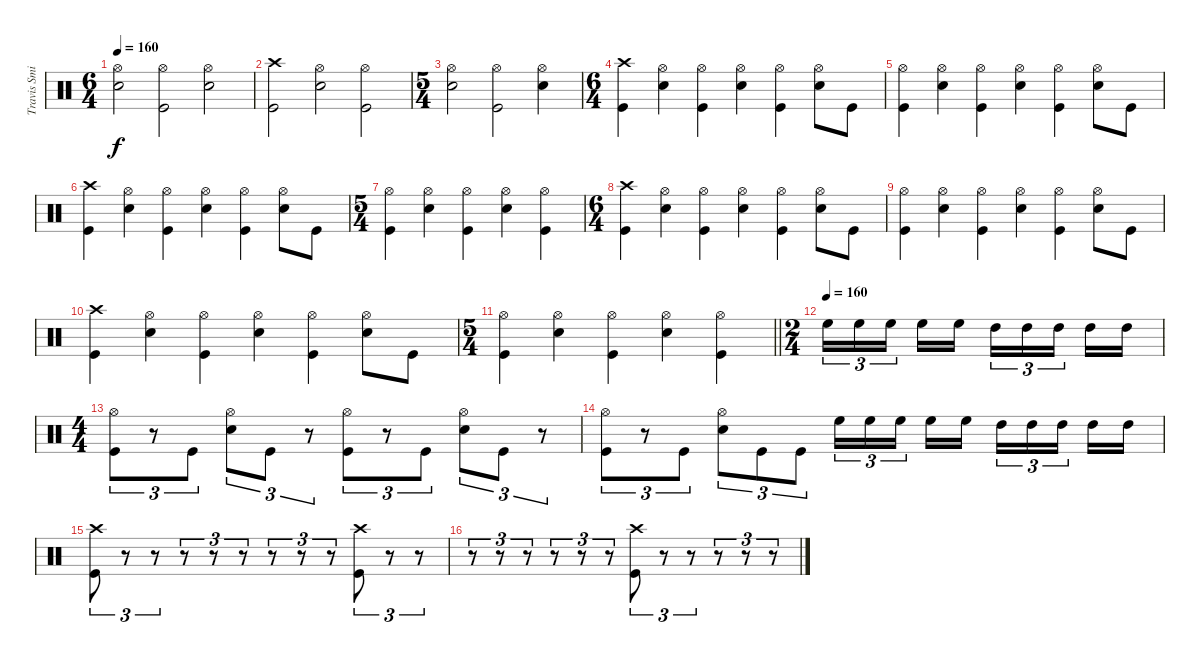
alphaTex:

\track ("Travis Smith" "Travis Smi") {instrument percussion}
\staff {score}
\articulation defaults
\ts (6 4)
\tempo 160
\clef neutral
\ks c
("Hi-Hat (open)" "Electric Snare (hit)").2{dy f} ("Hi-Hat (open)" "Kick (hit)").2 ("Hi-Hat (open)" "Electric Snare (hit)").2 |
("Crash high (hit)" "Kick (hit)").2 ("Hi-Hat (open)" "Electric Snare (hit)").2 ("Hi-Hat (open)" "Kick (hit)").2 |
\ts (5 4)
("Hi-Hat (open)" "Electric Snare (hit)").2 ("Hi-Hat (open)" "Kick (hit)").2 ("Hi-Hat (open)" "Electric Snare (hit)").4 |
\ts (6 4)
("Crash high (hit)" "Kick (hit)").4 ("Hi-Hat (open)" "Electric Snare (hit)").4 ("Hi-Hat (open)" "Kick (hit)").4 ("Hi-Hat (open)" "Electric Snare (hit)").4 ("Hi-Hat (open)" "Kick (hit)").4 ("Hi-Hat (open)" "Electric Snare (hit)").8 "Kick (hit)".8 |
("Hi-Hat (open)" "Kick (hit)").4 ("Hi-Hat (open)" "Electric Snare (hit)").4 ("Hi-Hat (open)" "Kick (hit)").4 ("Hi-Hat (open)" "Electric Snare (hit)").4 ("Hi-Hat (open)" "Kick (hit)").4 ("Hi-Hat (open)" "Electric Snare (hit)").8 "Kick (hit)".8 |
("Crash high (hit)" "Kick (hit)").4 ("Hi-Hat (open)" "Electric Snare (hit)").4 ("Hi-Hat (open)" "Kick (hit)").4 ("Hi-Hat (open)" "Electric Snare (hit)").4 ("Hi-Hat (open)" "Kick (hit)").4 ("Hi-Hat (open)" "Electric Snare (hit)").8 "Kick (hit)".8 |
\ts (5 4)
("Hi-Hat (open)" "Kick (hit)").4 ("Hi-Hat (open)" "Electric Snare (hit)").4 ("Hi-Hat (open)" "Kick (hit)").4 ("Hi-Hat (open)" "Electric Snare (hit)").4 ("Hi-Hat (open)" "Kick (hit)").4 |
\ts (6 4)
("Crash high (hit)" "Kick (hit)").4 ("Hi-Hat (open)" "Electric Snare (hit)").4 ("Hi-Hat (open)" "Kick (hit)").4 ("Hi-Hat (open)" "Electric Snare (hit)").4 ("Hi-Hat (open)" "Kick (hit)").4 ("Hi-Hat (open)" "Electric Snare (hit)").8 "Kick (hit)".8 |
("Hi-Hat (open)" "Kick (hit)").4 ("Hi-Hat (open)" "Electric Snare (hit)").4 ("Hi-Hat (open)" "Kick (hit)").4 ("Hi-Hat (open)" "Electric Snare (hit)").4 ("Hi-Hat (open)" "Kick (hit)").4 ("Hi-Hat (open)" "Electric Snare (hit)").8 "Kick (hit)".8 |
("Crash high (hit)" "Kick (hit)").4 ("Hi-Hat (open)" "Electric Snare (hit)").4 ("Hi-Hat (open)" "Kick (hit)").4 ("Hi-Hat (open)" "Electric Snare (hit)").4 ("Hi-Hat (open)" "Kick (hit)").4 ("Hi-Hat (open)" "Electric Snare (hit)").8 "Kick (hit)".8 |
\ts (5 4)
\barLineRight lightlight
("Hi-Hat (open)" "Kick (hit)").4 ("Hi-Hat (open)" "Electric Snare (hit)").4 ("Hi-Hat (open)" "Kick (hit)").4 ("Hi-Hat (open)" "Electric Snare (hit)").4 ("Hi-Hat (open)" "Kick (hit)").4 |
\ts (2 4)
\section ("" "")
\tempo (160)
"High Floor Tom (hit)".16{tu (3 2)} "High Floor Tom (hit)".16{tu (3 2)} "High Floor Tom (hit)".16{tu (3 2)} "High Floor Tom (hit)".16 "High Floor Tom (hit)".16 "High Tom (hit)".16{tu (3 2)} "High Tom (hit)".16{tu (3 2)} "High Tom (hit)".16{tu (3 2)} "High Tom (hit)".16 "High Tom (hit)".16 |
\ts (4 4)
("Hi-Hat (open)" "Kick (hit)").8{tu (3 2)} r.8{tu (3 2)} "Kick (hit)".8{tu (3 2)} ("Hi-Hat (open)" "Electric Snare (hit)").8{tu (3 2)} "Kick (hit)".8{tu (3 2)} r.8{tu (3 2)} ("Hi-Hat (open)" "Kick (hit)").8{tu (3 2)} r.8{tu (3 2)} "Kick (hit)".8{tu (3 2)} ("Hi-Hat (open)" "Electric Snare (hit)").8{tu (3 2)} "Kick (hit)".8{tu (3 2)} r.8{tu (3 2)} |
("Hi-Hat (open)" "Kick (hit)").8{tu (3 2)} r.8{tu (3 2)} "Kick (hit)".8{tu (3 2)} ("Hi-Hat (open)" "Electric Snare (hit)").8{tu (3 2)} "Kick (hit)".8{tu (3 2)} "Kick (hit)".8{tu (3 2)} "High Floor Tom (hit)".16{tu (3 2)} "High Floor Tom (hit)".16{tu (3 2)} "High Floor Tom (hit)".16{tu (3 2)} "High Floor Tom (hit)".16 "High Floor Tom (hit)".16 "High Tom (hit)".16{tu (3 2)} "High Tom (hit)".16{tu (3 2)} "High Tom (hit)".16{tu (3 2)} "High Tom (hit)".16 "High Tom (hit)".16 |
("Crash high (hit)" "Kick (hit)").8{tu (3 2)} r.8{tu (3 2)} r.8{tu (3 2)} r.8{tu (3 2)} r.8{tu (3 2)} r.8{tu (3 2)} r.8{tu (3 2)} r.8{tu (3 2)} r.8{tu (3 2)} ("Crash high (hit)" "Kick (hit)").8{tu (3 2)} r.8{tu (3 2)} r.8{tu (3 2)} |
r.8{tu (3 2)} r.8{tu (3 2)} r.8{tu (3 2)} r.8{tu (3 2)} r.8{tu (3 2)} r.8{tu (3 2)} ("Crash high (hit)" "Kick (hit)").8{tu (3 2)} r.8{tu (3 2)} r.8{tu (3 2)} r.8{tu (3 2)} r.8{tu (3 2)} r.8{tu (3 2)}
